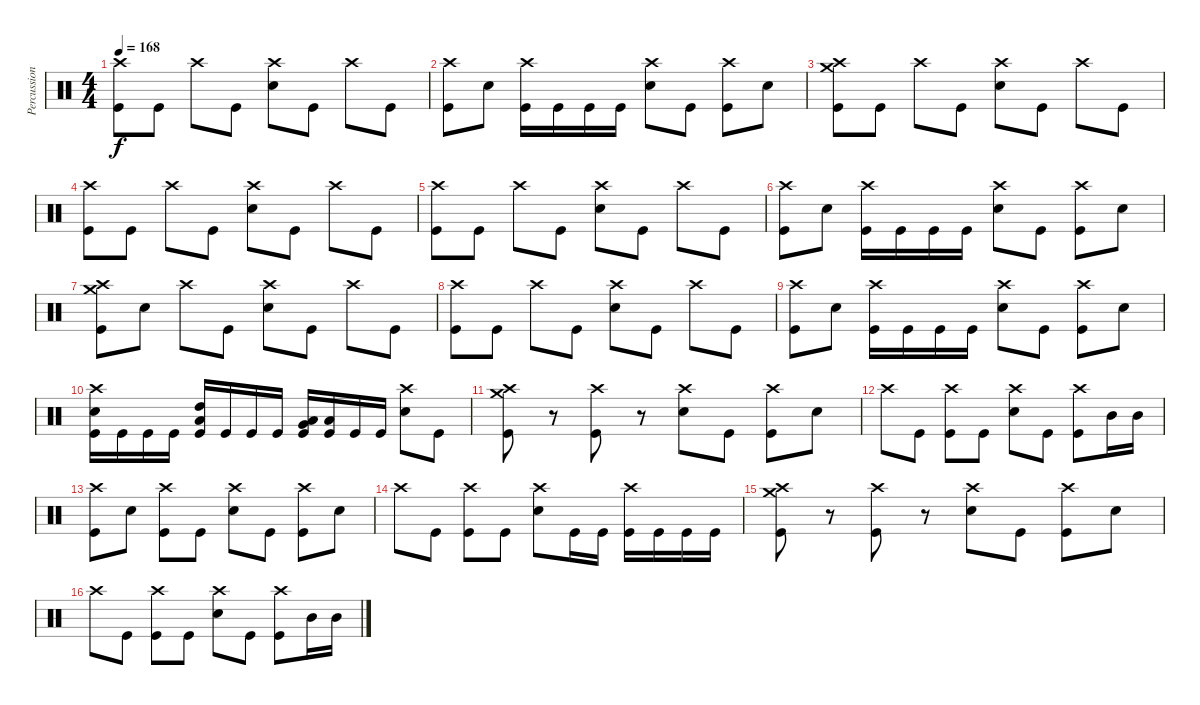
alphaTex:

\track ("Percussion" "Percussion") {instrument percussion}
\staff {score}
\articulation defaults
\ts (4 4)
\tempo 168
\clef neutral
\ks c
("Crash high (hit)" "Kick (hit)").8{dy f} "Kick (hit)".8 "Crash high (hit)".8 "Kick (hit)".8 ("Crash high (hit)" "Snare (hit) 2").8 "Kick (hit)".8 "Crash high (hit)".8 "Kick (hit)".8 |
("Crash high (hit)" "Kick (hit)").8 "Snare (hit) 2".8 ("Crash high (hit)" "Kick (hit)").16 "Kick (hit)".16 "Kick (hit)".16 "Kick (hit)".16 ("Crash high (hit)" "Snare (hit) 2").8 "Kick (hit)".8 ("Crash high (hit)" "Kick (hit)").8 "Snare (hit) 2".8 |
("Crash high (hit)" "Crash medium (hit)" "Kick (hit)").8 "Kick (hit)".8 "Crash high (hit)".8 "Kick (hit)".8 ("Crash high (hit)" "Snare (hit) 2").8 "Kick (hit)".8 "Crash high (hit)".8 "Kick (hit)".8 |
("Crash high (hit)" "Kick (hit)").8 "Kick (hit)".8 "Crash high (hit)".8 "Kick (hit)".8 ("Crash high (hit)" "Snare (hit) 2").8 "Kick (hit)".8 "Crash high (hit)".8 "Kick (hit)".8 |
("Crash high (hit)" "Kick (hit)").8 "Kick (hit)".8 "Crash high (hit)".8 "Kick (hit)".8 ("Crash high (hit)" "Snare (hit) 2").8 "Kick (hit)".8 "Crash high (hit)".8 "Kick (hit)".8 |
("Crash high (hit)" "Kick (hit)").8 "Snare (hit) 2".8 ("Crash high (hit)" "Kick (hit)").16 "Kick (hit)".16 "Kick (hit)".16 "Kick (hit)".16 ("Crash high (hit)" "Snare (hit) 2").8 "Kick (hit)".8 ("Crash high (hit)" "Kick (hit)").8 "Snare (hit) 2".8 |
("Crash high (hit)" "Crash medium (hit)" "Kick (hit)").8 "Snare (hit) 2".8 "Crash high (hit)".8 "Kick (hit)".8 ("Crash high (hit)" "Snare (hit) 2").8 "Kick (hit)".8 "Crash high (hit)".8 "Kick (hit)".8 |
("Crash high (hit)" "Kick (hit)").8 "Kick (hit)".8 "Crash high (hit)".8 "Kick (hit)".8 ("Crash high (hit)" "Snare (hit) 2").8 "Kick (hit)".8 "Crash high (hit)".8 "Kick (hit)".8 |
("Crash high (hit)" "Kick (hit)").8 "Snare (hit) 2".8 ("Crash high (hit)" "Kick (hit)").16 "Kick (hit)".16 "Kick (hit)".16 "Kick (hit)".16 ("Crash high (hit)" "Snare (hit) 2").8 "Kick (hit)".8 ("Crash high (hit)" "Kick (hit)").8 "Snare (hit) 2".8 |
("Crash high (hit)" "Snare (hit) 2" "Kick (hit)").16 "Kick (hit)".16 "Kick (hit)".16 "Kick (hit)".16 ("High Tom (hit)" "Low Tom (hit)" "Kick (hit)").16 "Kick (hit)".16 "Kick (hit)".16 "Kick (hit)".16 ("Very Low Tom (hit)" "Low Tom (hit)" "Kick (hit)").16 ("Low Floor Tom (hit)" "Kick (hit)").16 "Kick (hit)".16 "Kick (hit)".16 ("Crash high (hit)" "Snare (hit) 2").8 "Kick (hit)".8 |
("Crash high (hit)" "Crash medium (hit)" "Kick (hit)").8 r.8 ("Crash high (hit)" "Kick (hit)").8 r.8 ("Crash high (hit)" "Snare (hit) 2").8 "Kick (hit)".8 ("Crash high (hit)" "Kick (hit)").8 "Snare (hit) 2".8 |
"Crash high (hit)".8 "Kick (hit)".8 ("Crash high (hit)" "Kick (hit)").8 "Kick (hit)".8 ("Crash high (hit)" "Snare (hit) 2").8 "Kick (hit)".8 ("Crash high (hit)" "Kick (hit)").8 "Mid Tom (hit)".16 "Mid Tom (hit)".16 |
("Crash high (hit)" "Kick (hit)").8 "Snare (hit) 2".8 ("Crash high (hit)" "Kick (hit)").8 "Kick (hit)".8 ("Crash high (hit)" "Snare (hit) 2").8 "Kick (hit)".8 ("Crash high (hit)" "Kick (hit)").8 "Snare (hit) 2".8 |
"Crash high (hit)".8 "Kick (hit)".8 ("Crash high (hit)" "Kick (hit)").8 "Kick (hit)".8 ("Crash high (hit)" "Snare (hit) 2").8 "Kick (hit)".16 "Kick (hit)".16 ("Crash high (hit)" "Kick (hit)").16 "Kick (hit)".16 "Kick (hit)".16 "Kick (hit)".16 |
("Crash high (hit)" "Crash medium (hit)" "Kick (hit)").8 r.8 ("Crash high (hit)" "Kick (hit)").8 r.8 ("Crash high (hit)" "Snare (hit) 2").8 "Kick (hit)".8 ("Crash high (hit)" "Kick (hit)").8 "Snare (hit) 2".8 |
"Crash high (hit)".8 "Kick (hit)".8 ("Crash high (hit)" "Kick (hit)").8 "Kick (hit)".8 ("Crash high (hit)" "Snare (hit) 2").8 "Kick (hit)".8 ("Crash high (hit)" "Kick (hit)").8 "Mid Tom (hit)".16 "Mid Tom (hit)".16
